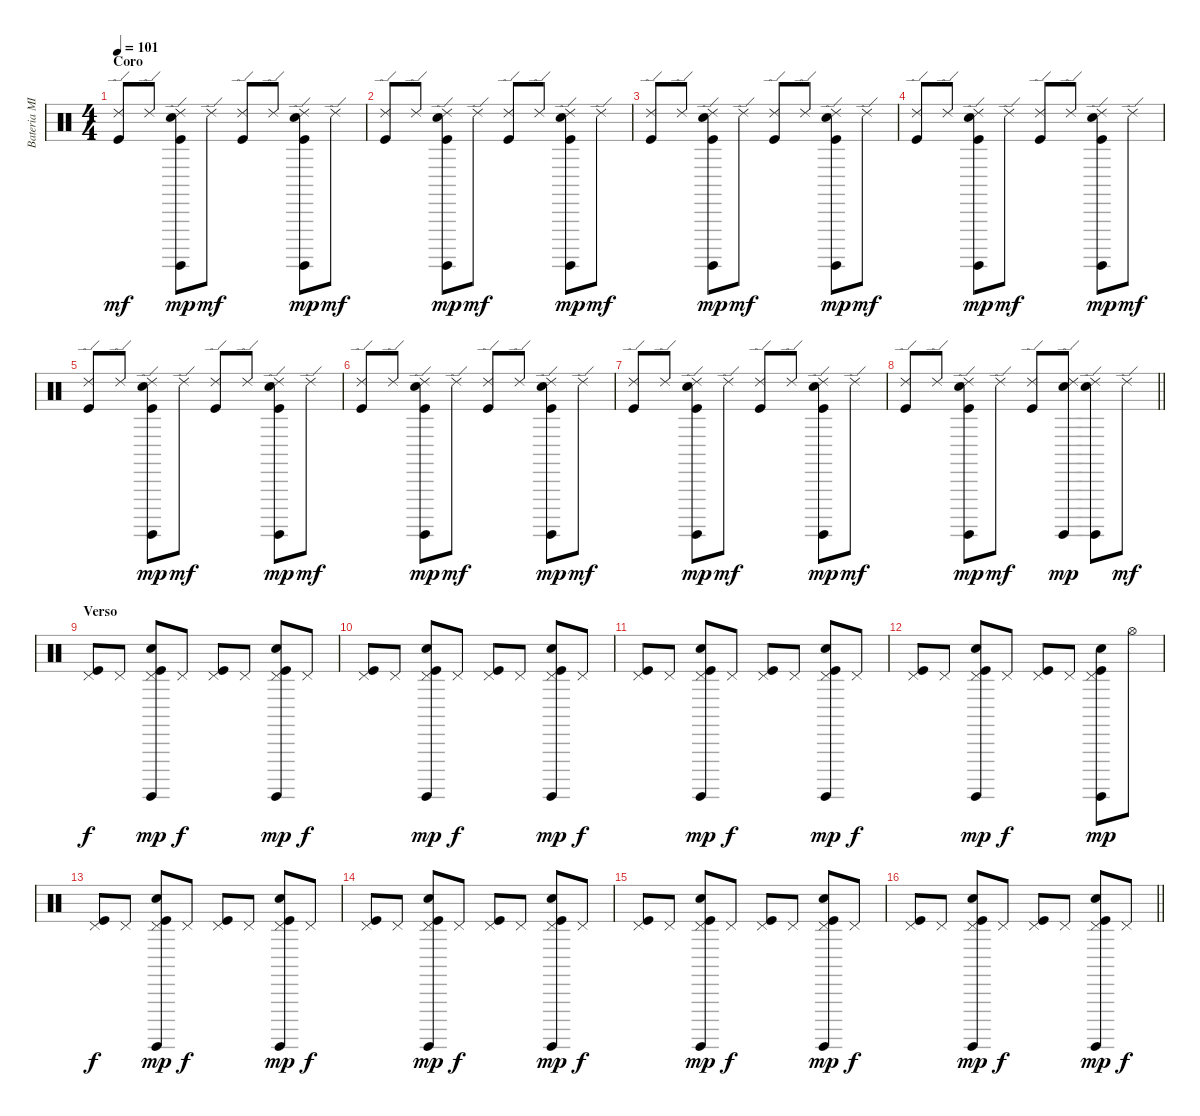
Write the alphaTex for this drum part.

\track ("Bateria MIDI" "Bateria MI") {instrument percussion}
\staff {score}
\articulation defaults
\ts (4 4)
\section ("" "Coro")
\tempo 101
\clef neutral
\ks c
("Ride (edge) 2" "Kick (hit)").8{dy mf} "Ride (edge) 2".8 ("Ride (edge) 2" "Surdo (hit)" "Electric Snare (hit)" "Kick (hit)").8{dy mp} "Ride (edge) 2".8{dy mf} ("Ride (edge) 2" "Kick (hit)").8 "Ride (edge) 2".8 ("Ride (edge) 2" "Surdo (hit)" "Electric Snare (hit)" "Kick (hit)").8{dy mp} "Ride (edge) 2".8{dy mf} |
("Ride (edge) 2" "Kick (hit)").8 "Ride (edge) 2".8 ("Ride (edge) 2" "Surdo (hit)" "Electric Snare (hit)" "Kick (hit)").8{dy mp} "Ride (edge) 2".8{dy mf} ("Ride (edge) 2" "Kick (hit)").8 "Ride (edge) 2".8 ("Ride (edge) 2" "Surdo (hit)" "Electric Snare (hit)" "Kick (hit)").8{dy mp} "Ride (edge) 2".8{dy mf} |
("Ride (edge) 2" "Kick (hit)").8 "Ride (edge) 2".8 ("Ride (edge) 2" "Surdo (hit)" "Electric Snare (hit)" "Kick (hit)").8{dy mp} "Ride (edge) 2".8{dy mf} ("Ride (edge) 2" "Kick (hit)").8 "Ride (edge) 2".8 ("Ride (edge) 2" "Surdo (hit)" "Electric Snare (hit)" "Kick (hit)").8{dy mp} "Ride (edge) 2".8{dy mf} |
("Ride (edge) 2" "Kick (hit)").8 "Ride (edge) 2".8 ("Ride (edge) 2" "Surdo (hit)" "Electric Snare (hit)" "Kick (hit)").8{dy mp} "Ride (edge) 2".8{dy mf} ("Ride (edge) 2" "Kick (hit)").8 "Ride (edge) 2".8 ("Ride (edge) 2" "Surdo (hit)" "Electric Snare (hit)" "Kick (hit)").8{dy mp} "Ride (edge) 2".8{dy mf} |
("Ride (edge) 2" "Kick (hit)").8 "Ride (edge) 2".8 ("Ride (edge) 2" "Surdo (hit)" "Electric Snare (hit)" "Kick (hit)").8{dy mp} "Ride (edge) 2".8{dy mf} ("Ride (edge) 2" "Kick (hit)").8 "Ride (edge) 2".8 ("Ride (edge) 2" "Surdo (hit)" "Electric Snare (hit)" "Kick (hit)").8{dy mp} "Ride (edge) 2".8{dy mf} |
("Ride (edge) 2" "Kick (hit)").8 "Ride (edge) 2".8 ("Ride (edge) 2" "Surdo (hit)" "Electric Snare (hit)" "Kick (hit)").8{dy mp} "Ride (edge) 2".8{dy mf} ("Ride (edge) 2" "Kick (hit)").8 "Ride (edge) 2".8 ("Ride (edge) 2" "Surdo (hit)" "Electric Snare (hit)" "Kick (hit)").8{dy mp} "Ride (edge) 2".8{dy mf} |
("Ride (edge) 2" "Kick (hit)").8 "Ride (edge) 2".8 ("Ride (edge) 2" "Surdo (hit)" "Electric Snare (hit)" "Kick (hit)").8{dy mp} "Ride (edge) 2".8{dy mf} ("Ride (edge) 2" "Kick (hit)").8 "Ride (edge) 2".8 ("Ride (edge) 2" "Surdo (hit)" "Electric Snare (hit)" "Kick (hit)").8{dy mp} "Ride (edge) 2".8{dy mf} |
\barLineRight lightlight
("Ride (edge) 2" "Kick (hit)").8 "Ride (edge) 2".8 ("Ride (edge) 2" "Surdo (hit)" "Electric Snare (hit)" "Kick (hit)").8{dy mp} "Ride (edge) 2".8{dy mf} ("Ride (edge) 2" "Kick (hit)").8 ("Ride (edge) 2" "Surdo (hit)" "Electric Snare (hit)").8{dy mp} ("Ride (edge) 2" "Surdo (hit)" "Electric Snare (hit)").8 "Ride (edge) 2".8{dy mf} |
\section ("" "Verso")
("Pedal Hi-Hat (hit)" "Kick (hit)").8{dy f} "Pedal Hi-Hat (hit)".8 ("Pedal Hi-Hat (hit)" "Surdo (hit)" "Electric Snare (hit)" "Kick (hit)").8{dy mp} "Pedal Hi-Hat (hit)".8{dy f} ("Pedal Hi-Hat (hit)" "Kick (hit)").8 "Pedal Hi-Hat (hit)".8 ("Pedal Hi-Hat (hit)" "Surdo (hit)" "Electric Snare (hit)" "Kick (hit)").8{dy mp} "Pedal Hi-Hat (hit)".8{dy f} |
("Pedal Hi-Hat (hit)" "Kick (hit)").8 "Pedal Hi-Hat (hit)".8 ("Pedal Hi-Hat (hit)" "Surdo (hit)" "Electric Snare (hit)" "Kick (hit)").8{dy mp} "Pedal Hi-Hat (hit)".8{dy f} ("Pedal Hi-Hat (hit)" "Kick (hit)").8 "Pedal Hi-Hat (hit)".8 ("Pedal Hi-Hat (hit)" "Surdo (hit)" "Electric Snare (hit)" "Kick (hit)").8{dy mp} "Pedal Hi-Hat (hit)".8{dy f} |
("Pedal Hi-Hat (hit)" "Kick (hit)").8 "Pedal Hi-Hat (hit)".8 ("Pedal Hi-Hat (hit)" "Surdo (hit)" "Electric Snare (hit)" "Kick (hit)").8{dy mp} "Pedal Hi-Hat (hit)".8{dy f} ("Pedal Hi-Hat (hit)" "Kick (hit)").8 "Pedal Hi-Hat (hit)".8 ("Pedal Hi-Hat (hit)" "Surdo (hit)" "Electric Snare (hit)" "Kick (hit)").8{dy mp} "Pedal Hi-Hat (hit)".8{dy f} |
("Pedal Hi-Hat (hit)" "Kick (hit)").8 "Pedal Hi-Hat (hit)".8 ("Pedal Hi-Hat (hit)" "Surdo (hit)" "Electric Snare (hit)" "Kick (hit)").8{dy mp} "Pedal Hi-Hat (hit)".8{dy f} ("Pedal Hi-Hat (hit)" "Kick (hit)").8 "Pedal Hi-Hat (hit)".8 ("Pedal Hi-Hat (hit)" "Surdo (hit)" "Electric Snare (hit)" "Kick (hit)").8{dy mp} "Hi-Hat (open)".8 |
("Pedal Hi-Hat (hit)" "Kick (hit)").8{dy f} "Pedal Hi-Hat (hit)".8 ("Pedal Hi-Hat (hit)" "Surdo (hit)" "Electric Snare (hit)" "Kick (hit)").8{dy mp} "Pedal Hi-Hat (hit)".8{dy f} ("Pedal Hi-Hat (hit)" "Kick (hit)").8 "Pedal Hi-Hat (hit)".8 ("Pedal Hi-Hat (hit)" "Surdo (hit)" "Electric Snare (hit)" "Kick (hit)").8{dy mp} "Pedal Hi-Hat (hit)".8{dy f} |
("Pedal Hi-Hat (hit)" "Kick (hit)").8 "Pedal Hi-Hat (hit)".8 ("Pedal Hi-Hat (hit)" "Surdo (hit)" "Electric Snare (hit)" "Kick (hit)").8{dy mp} "Pedal Hi-Hat (hit)".8{dy f} ("Pedal Hi-Hat (hit)" "Kick (hit)").8 "Pedal Hi-Hat (hit)".8 ("Pedal Hi-Hat (hit)" "Surdo (hit)" "Electric Snare (hit)" "Kick (hit)").8{dy mp} "Pedal Hi-Hat (hit)".8{dy f} |
("Pedal Hi-Hat (hit)" "Kick (hit)").8 "Pedal Hi-Hat (hit)".8 ("Pedal Hi-Hat (hit)" "Surdo (hit)" "Electric Snare (hit)" "Kick (hit)").8{dy mp} "Pedal Hi-Hat (hit)".8{dy f} ("Pedal Hi-Hat (hit)" "Kick (hit)").8 "Pedal Hi-Hat (hit)".8 ("Pedal Hi-Hat (hit)" "Surdo (hit)" "Electric Snare (hit)" "Kick (hit)").8{dy mp} "Pedal Hi-Hat (hit)".8{dy f} |
\barLineRight lightlight
("Pedal Hi-Hat (hit)" "Kick (hit)").8 "Pedal Hi-Hat (hit)".8 ("Pedal Hi-Hat (hit)" "Surdo (hit)" "Electric Snare (hit)" "Kick (hit)").8{dy mp} "Pedal Hi-Hat (hit)".8{dy f} ("Pedal Hi-Hat (hit)" "Kick (hit)").8 "Pedal Hi-Hat (hit)".8 ("Pedal Hi-Hat (hit)" "Surdo (hit)" "Electric Snare (hit)" "Kick (hit)").8{dy mp} "Pedal Hi-Hat (hit)".8{dy f}
